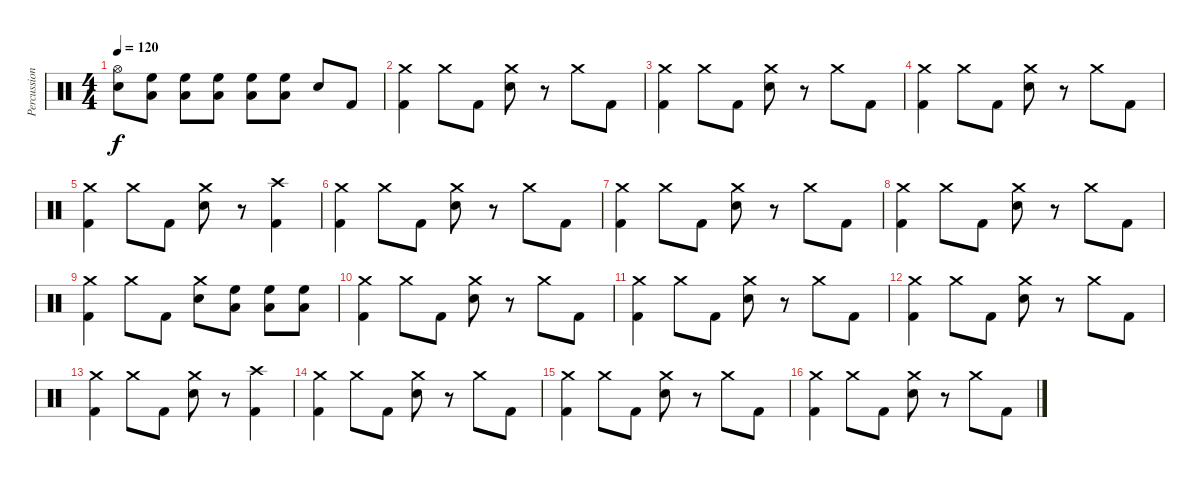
\track ("Percussion" "Percussion") {instrument percussion}
\staff {score}
\articulation defaults
\ts (4 4)
\tempo 120
\clef neutral
\ks c
("Hi-Hat (open)" "Electric Snare (hit)").8{dy f} ("Low Floor Tom (hit)" "High Floor Tom (hit)").8 ("Low Floor Tom (hit)" "High Floor Tom (hit)").8 ("Low Floor Tom (hit)" "High Floor Tom (hit)").8 ("Low Floor Tom (hit)" "High Floor Tom (hit)").8 ("Low Floor Tom (hit)" "High Floor Tom (hit)").8 "Electric Snare (hit)".8 "Kick (hit) 2".8 |
("Crash medium (hit)" "Kick (hit) 2").4 "Crash medium (hit)".8 "Kick (hit) 2".8 ("Crash medium (hit)" "Electric Snare (hit)").8 r.8 "Crash medium (hit)".8 "Kick (hit) 2".8 |
("Crash medium (hit)" "Kick (hit) 2").4 "Crash medium (hit)".8 "Kick (hit) 2".8 ("Crash medium (hit)" "Electric Snare (hit)").8 r.8 "Crash medium (hit)".8 "Kick (hit) 2".8 |
("Crash medium (hit)" "Kick (hit) 2").4 "Crash medium (hit)".8 "Kick (hit) 2".8 ("Crash medium (hit)" "Electric Snare (hit)").8 r.8 "Crash medium (hit)".8 "Kick (hit) 2".8 |
("Crash medium (hit)" "Kick (hit) 2").4 "Crash medium (hit)".8 "Kick (hit) 2".8 ("Crash medium (hit)" "Electric Snare (hit)").8 r.8 ("Crash high (hit)" "Kick (hit) 2").4 |
("Crash medium (hit)" "Kick (hit) 2").4 "Crash medium (hit)".8 "Kick (hit) 2".8 ("Crash medium (hit)" "Electric Snare (hit)").8 r.8 "Crash medium (hit)".8 "Kick (hit) 2".8 |
("Crash medium (hit)" "Kick (hit) 2").4 "Crash medium (hit)".8 "Kick (hit) 2".8 ("Crash medium (hit)" "Electric Snare (hit)").8 r.8 "Crash medium (hit)".8 "Kick (hit) 2".8 |
("Crash medium (hit)" "Kick (hit) 2").4 "Crash medium (hit)".8 "Kick (hit) 2".8 ("Crash medium (hit)" "Electric Snare (hit)").8 r.8 "Crash medium (hit)".8 "Kick (hit) 2".8 |
("Crash medium (hit)" "Kick (hit) 2").4 "Crash medium (hit)".8 "Kick (hit) 2".8 ("Crash medium (hit)" "Electric Snare (hit)").8 ("High Floor Tom (hit)" "Low Floor Tom (hit)").8 ("High Floor Tom (hit)" "Low Floor Tom (hit)").8 ("High Floor Tom (hit)" "Low Floor Tom (hit)").8 |
("Crash medium (hit)" "Kick (hit) 2").4 "Crash medium (hit)".8 "Kick (hit) 2".8 ("Crash medium (hit)" "Electric Snare (hit)").8 r.8 "Crash medium (hit)".8 "Kick (hit) 2".8 |
("Crash medium (hit)" "Kick (hit) 2").4 "Crash medium (hit)".8 "Kick (hit) 2".8 ("Crash medium (hit)" "Electric Snare (hit)").8 r.8 "Crash medium (hit)".8 "Kick (hit) 2".8 |
("Crash medium (hit)" "Kick (hit) 2").4 "Crash medium (hit)".8 "Kick (hit) 2".8 ("Crash medium (hit)" "Electric Snare (hit)").8 r.8 "Crash medium (hit)".8 "Kick (hit) 2".8 |
("Crash medium (hit)" "Kick (hit) 2").4 "Crash medium (hit)".8 "Kick (hit) 2".8 ("Crash medium (hit)" "Electric Snare (hit)").8 r.8 ("Crash high (hit)" "Kick (hit) 2").4 |
("Crash medium (hit)" "Kick (hit) 2").4 "Crash medium (hit)".8 "Kick (hit) 2".8 ("Crash medium (hit)" "Electric Snare (hit)").8 r.8 "Crash medium (hit)".8 "Kick (hit) 2".8 |
("Crash medium (hit)" "Kick (hit) 2").4 "Crash medium (hit)".8 "Kick (hit) 2".8 ("Crash medium (hit)" "Electric Snare (hit)").8 r.8 "Crash medium (hit)".8 "Kick (hit) 2".8 |
("Crash medium (hit)" "Kick (hit) 2").4 "Crash medium (hit)".8 "Kick (hit) 2".8 ("Crash medium (hit)" "Electric Snare (hit)").8 r.8 "Crash medium (hit)".8 "Kick (hit) 2".8
